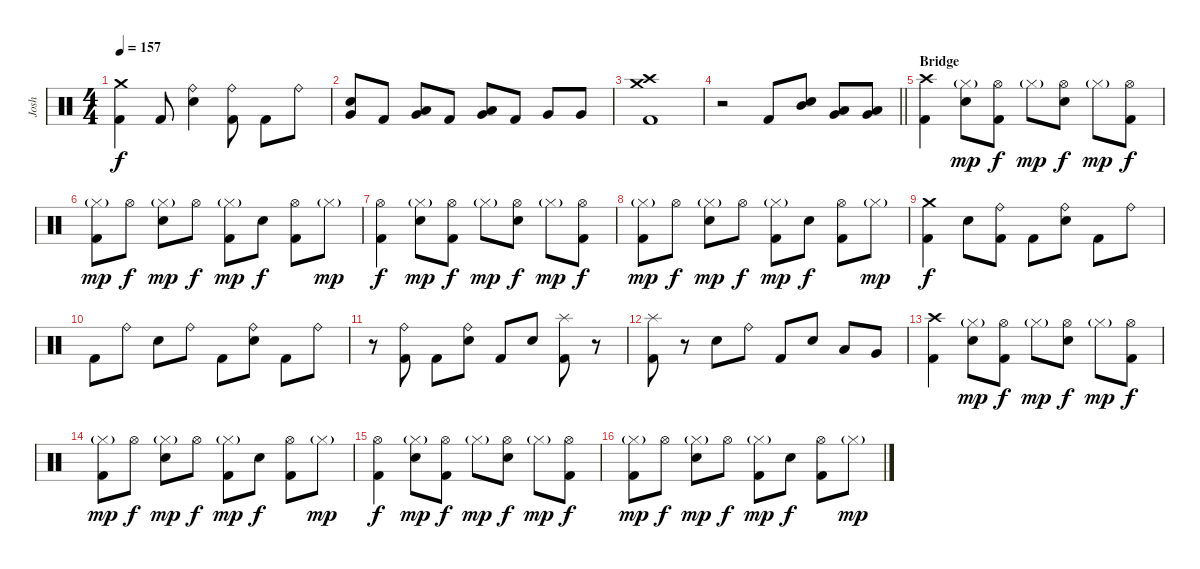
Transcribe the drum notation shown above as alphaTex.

\track ("Josh" "Josh") {instrument percussion}
\staff {score}
\articulation defaults
\ts (4 4)
\tempo 157
\clef neutral
\ks c
("Crash medium (hit)" "Kick (hit) 2").4{dy f} "Kick (hit) 2".8 ("Ride (bell)" "Electric Snare (hit)").4 ("Ride (bell)" "Kick (hit) 2").8 "Kick (hit) 2".8 "Ride (bell)".8 |
("Very Low Tom (hit)" "Electric Snare (hit)").8 "Kick (hit) 2".8 ("Low Tom (hit)" "Very Low Tom (hit)").8 "Kick (hit) 2".8 ("Low Tom (hit)" "Very Low Tom (hit)").8 "Kick (hit) 2".8 "Very Low Tom (hit)".8 "Very Low Tom (hit)".8 |
("Crash high (hit)" "Crash medium (hit)" "Kick (hit) 2").1 |
\barLineRight lightlight
r.2 "Kick (hit) 2".8 ("Mid Tom (hit)" "Electric Snare (hit)").8 ("Very Low Tom (hit)" "Low Tom (hit)").8 ("Low Floor Tom (hit)" "Very Low Tom (hit)").8 |
\section ("" "Bridge")
("Crash high (hit)" "Kick (hit) 2").4 ("Hi-Hat (closed)"{g} "Electric Snare (hit)").8{dy mp} ("Hi-Hat (open)" "Kick (hit) 2").8{dy f} "Hi-Hat (closed)"{g}.8{dy mp} ("Hi-Hat (open)" "Electric Snare (hit)").8{dy f} "Hi-Hat (closed)"{g}.8{dy mp} ("Hi-Hat (open)" "Kick (hit) 2").8{dy f} |
("Hi-Hat (closed)"{g} "Kick (hit) 2").8{dy mp} "Hi-Hat (open)".8{dy f} ("Hi-Hat (closed)"{g} "Electric Snare (hit)").8{dy mp} "Hi-Hat (open)".8{dy f} ("Hi-Hat (closed)"{g} "Kick (hit) 2").8{dy mp} "Electric Snare (hit)".8{dy f} ("Hi-Hat (open)" "Kick (hit) 2").8 "Hi-Hat (closed)"{g}.8{dy mp} |
("Hi-Hat (open)" "Kick (hit) 2").4{dy f} ("Hi-Hat (closed)"{g} "Electric Snare (hit)").8{dy mp} ("Hi-Hat (open)" "Kick (hit) 2").8{dy f} "Hi-Hat (closed)"{g}.8{dy mp} ("Hi-Hat (open)" "Electric Snare (hit)").8{dy f} "Hi-Hat (closed)"{g}.8{dy mp} ("Hi-Hat (open)" "Kick (hit) 2").8{dy f} |
("Hi-Hat (closed)"{g} "Kick (hit) 2").8{dy mp} "Hi-Hat (open)".8{dy f} ("Hi-Hat (closed)"{g} "Electric Snare (hit)").8{dy mp} "Hi-Hat (open)".8{dy f} ("Hi-Hat (closed)"{g} "Kick (hit) 2").8{dy mp} "Electric Snare (hit)".8{dy f} ("Hi-Hat (open)" "Kick (hit) 2").8 "Hi-Hat (closed)"{g}.8{dy mp} |
("Crash medium (hit)" "Kick (hit) 2").4{dy f} "Electric Snare (hit)".8 ("Ride (bell)" "Kick (hit) 2").8 "Kick (hit) 2".8 ("Ride (bell)" "Electric Snare (hit)").8 "Kick (hit) 2".8 "Ride (bell)".8 |
"Kick (hit) 2".8 "Ride (bell)".8 "Electric Snare (hit)".8 "Ride (bell)".8 "Kick (hit) 2".8 ("Ride (bell)" "Electric Snare (hit)").8 "Kick (hit) 2".8 "Ride (bell)".8 |
r.8 ("Ride (bell)" "Kick (hit) 2").8 "Kick (hit) 2".8 ("Ride (bell)" "Electric Snare (hit)").8 "Kick (hit) 2".8 "Electric Snare (hit)".8 ("Splash (hit)" "Kick (hit) 2").8 r.8 |
("Splash (hit)" "Kick (hit) 2").8 r.8 "Electric Snare (hit)".8 "Ride (bell)".8 "Kick (hit) 2".8 "Electric Snare (hit)".8 "Low Tom (hit)".8 "Very Low Tom (hit)".8 |
("Crash high (hit)" "Kick (hit) 2").4 ("Hi-Hat (closed)"{g} "Electric Snare (hit)").8{dy mp} ("Hi-Hat (open)" "Kick (hit) 2").8{dy f} "Hi-Hat (closed)"{g}.8{dy mp} ("Hi-Hat (open)" "Electric Snare (hit)").8{dy f} "Hi-Hat (closed)"{g}.8{dy mp} ("Hi-Hat (open)" "Kick (hit) 2").8{dy f} |
("Hi-Hat (closed)"{g} "Kick (hit) 2").8{dy mp} "Hi-Hat (open)".8{dy f} ("Hi-Hat (closed)"{g} "Electric Snare (hit)").8{dy mp} "Hi-Hat (open)".8{dy f} ("Hi-Hat (closed)"{g} "Kick (hit) 2").8{dy mp} "Electric Snare (hit)".8{dy f} ("Hi-Hat (open)" "Kick (hit) 2").8 "Hi-Hat (closed)"{g}.8{dy mp} |
("Hi-Hat (open)" "Kick (hit) 2").4{dy f} ("Hi-Hat (closed)"{g} "Electric Snare (hit)").8{dy mp} ("Hi-Hat (open)" "Kick (hit) 2").8{dy f} "Hi-Hat (closed)"{g}.8{dy mp} ("Hi-Hat (open)" "Electric Snare (hit)").8{dy f} "Hi-Hat (closed)"{g}.8{dy mp} ("Hi-Hat (open)" "Kick (hit) 2").8{dy f} |
("Hi-Hat (closed)"{g} "Kick (hit) 2").8{dy mp} "Hi-Hat (open)".8{dy f} ("Hi-Hat (closed)"{g} "Electric Snare (hit)").8{dy mp} "Hi-Hat (open)".8{dy f} ("Hi-Hat (closed)"{g} "Kick (hit) 2").8{dy mp} "Electric Snare (hit)".8{dy f} ("Hi-Hat (open)" "Kick (hit) 2").8 "Hi-Hat (closed)"{g}.8{dy mp}
